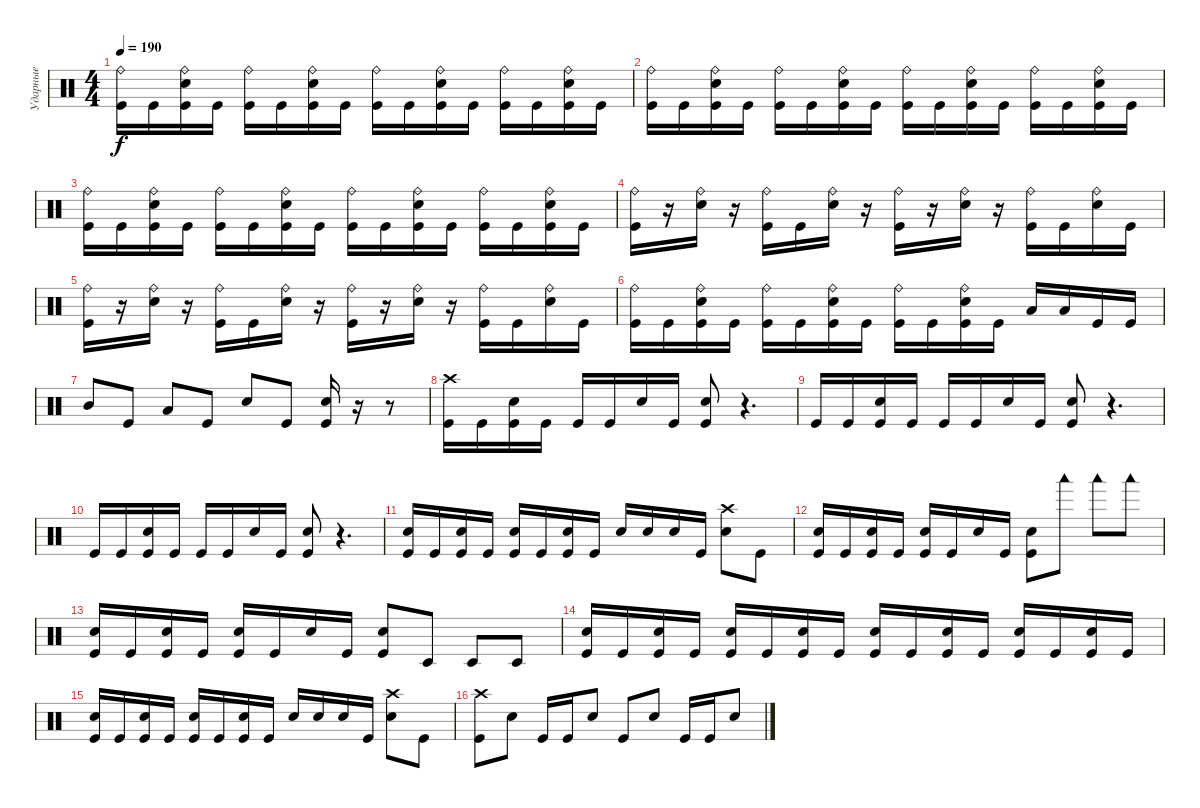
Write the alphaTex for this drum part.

\track ("Ударные" "Ударные") {instrument percussion}
\staff {score}
\articulation defaults
\ts (4 4)
\tempo 190
\clef neutral
\ks c
("Ride (bell)" "Kick (hit)").16{dy f} "Kick (hit)".16 ("Ride (bell)" "Electric Snare (hit)" "Kick (hit)").16 "Kick (hit)".16 ("Ride (bell)" "Kick (hit)").16 "Kick (hit)".16 ("Ride (bell)" "Electric Snare (hit)" "Kick (hit)").16 "Kick (hit)".16 ("Ride (bell)" "Kick (hit)").16 "Kick (hit)".16 ("Ride (bell)" "Electric Snare (hit)" "Kick (hit)").16 "Kick (hit)".16 ("Ride (bell)" "Kick (hit)").16 "Kick (hit)".16 ("Ride (bell)" "Electric Snare (hit)" "Kick (hit)").16 "Kick (hit)".16 |
("Ride (bell)" "Kick (hit)").16 "Kick (hit)".16 ("Ride (bell)" "Electric Snare (hit)" "Kick (hit)").16 "Kick (hit)".16 ("Ride (bell)" "Kick (hit)").16 "Kick (hit)".16 ("Ride (bell)" "Electric Snare (hit)" "Kick (hit)").16 "Kick (hit)".16 ("Ride (bell)" "Kick (hit)").16 "Kick (hit)".16 ("Ride (bell)" "Electric Snare (hit)" "Kick (hit)").16 "Kick (hit)".16 ("Ride (bell)" "Kick (hit)").16 "Kick (hit)".16 ("Ride (bell)" "Electric Snare (hit)" "Kick (hit)").16 "Kick (hit)".16 |
("Ride (bell)" "Kick (hit)").16 "Kick (hit)".16 ("Ride (bell)" "Electric Snare (hit)" "Kick (hit)").16 "Kick (hit)".16 ("Ride (bell)" "Kick (hit)").16 "Kick (hit)".16 ("Ride (bell)" "Electric Snare (hit)" "Kick (hit)").16 "Kick (hit)".16 ("Ride (bell)" "Kick (hit)").16 "Kick (hit)".16 ("Ride (bell)" "Electric Snare (hit)" "Kick (hit)").16 "Kick (hit)".16 ("Ride (bell)" "Kick (hit)").16 "Kick (hit)".16 ("Ride (bell)" "Electric Snare (hit)" "Kick (hit)").16 "Kick (hit)".16 |
("Ride (bell)" "Kick (hit)").16 r.16 ("Ride (bell)" "Electric Snare (hit)").16 r.16 ("Ride (bell)" "Kick (hit)").16 "Kick (hit)".16 ("Ride (bell)" "Electric Snare (hit)").16 r.16 ("Ride (bell)" "Kick (hit)").16 r.16 ("Ride (bell)" "Electric Snare (hit)").16 r.16 ("Ride (bell)" "Kick (hit)").16 "Kick (hit)".16 ("Ride (bell)" "Electric Snare (hit)").16 "Kick (hit)".16 |
("Ride (bell)" "Kick (hit)").16 r.16 ("Ride (bell)" "Electric Snare (hit)").16 r.16 ("Ride (bell)" "Kick (hit)").16 "Kick (hit)".16 ("Ride (bell)" "Electric Snare (hit)").16 r.16 ("Ride (bell)" "Kick (hit)").16 r.16 ("Ride (bell)" "Electric Snare (hit)").16 r.16 ("Ride (bell)" "Kick (hit)").16 "Kick (hit)".16 ("Ride (bell)" "Electric Snare (hit)").16 "Kick (hit)".16 |
("Ride (bell)" "Kick (hit)").16 "Kick (hit)".16 ("Ride (bell)" "Electric Snare (hit)" "Kick (hit)").16 "Kick (hit)".16 ("Ride (bell)" "Kick (hit)").16 "Kick (hit)".16 ("Ride (bell)" "Electric Snare (hit)" "Kick (hit)").16 "Kick (hit)".16 ("Ride (bell)" "Kick (hit)").16 "Kick (hit)".16 ("Ride (bell)" "Electric Snare (hit)" "Kick (hit)").16 "Kick (hit)".16 "Low Tom (hit)".16 "Low Tom (hit)".16 "Kick (hit)".16 "Kick (hit)".16 |
"Mid Tom (hit)".8 "Kick (hit)".8 "Low Tom (hit)".8 "Kick (hit)".8 "Electric Snare (hit)".8 "Kick (hit)".8 ("Electric Snare (hit)" "Kick (hit)").16 r.16 r.8 |
("Crash high (hit)" "Kick (hit)").16 "Kick (hit)".16 ("Electric Snare (hit)" "Kick (hit)").16 "Kick (hit)".16 "Kick (hit)".16 "Kick (hit)".16 "Electric Snare (hit)".16 "Kick (hit)".16 ("Electric Snare (hit)" "Kick (hit)").8 r.4{d} |
"Kick (hit)".16 "Kick (hit)".16 ("Electric Snare (hit)" "Kick (hit)").16 "Kick (hit)".16 "Kick (hit)".16 "Kick (hit)".16 "Electric Snare (hit)".16 "Kick (hit)".16 ("Electric Snare (hit)" "Kick (hit)").8 r.4{d} |
"Kick (hit)".16 "Kick (hit)".16 ("Electric Snare (hit)" "Kick (hit)").16 "Kick (hit)".16 "Kick (hit)".16 "Kick (hit)".16 "Electric Snare (hit)".16 "Kick (hit)".16 ("Electric Snare (hit)" "Kick (hit)").8 r.4{d} |
("Electric Snare (hit)" "Kick (hit)").16 "Kick (hit)".16 ("Electric Snare (hit)" "Kick (hit)").16 "Kick (hit)".16 ("Electric Snare (hit)" "Kick (hit)").16 "Kick (hit)".16 ("Electric Snare (hit)" "Kick (hit)").16 "Kick (hit)".16 "Electric Snare (hit)".16 "Electric Snare (hit)".16 "Electric Snare (hit)".16 "Kick (hit)".16 ("Crash high (hit)" "Electric Snare (hit)").8 "Kick (hit)".8 |
("Electric Snare (hit)" "Kick (hit)").16 "Kick (hit)".16 ("Electric Snare (hit)" "Kick (hit)").16 "Kick (hit)".16 ("Electric Snare (hit)" "Kick (hit)").16 "Kick (hit)".16 "Electric Snare (hit)".16 "Kick (hit)".16 ("Electric Snare (hit)" "Kick (hit)").8 "Woodblock low (hit)".8 "Woodblock low (hit)".8 "Woodblock low (hit)".8 |
("Electric Snare (hit)" "Kick (hit)").16 "Kick (hit)".16 ("Electric Snare (hit)" "Kick (hit)").16 "Kick (hit)".16 ("Electric Snare (hit)" "Kick (hit)").16 "Kick (hit)".16 "Electric Snare (hit)".16 "Kick (hit)".16 ("Electric Snare (hit)" "Kick (hit)").8 "Timbale low (hit)".8 "Timbale low (hit)".8 "Timbale low (hit)".8 |
("Electric Snare (hit)" "Kick (hit)").16 "Kick (hit)".16 ("Electric Snare (hit)" "Kick (hit)").16 "Kick (hit)".16 ("Electric Snare (hit)" "Kick (hit)").16 "Kick (hit)".16 ("Electric Snare (hit)" "Kick (hit)").16 "Kick (hit)".16 ("Electric Snare (hit)" "Kick (hit)").16 "Kick (hit)".16 ("Electric Snare (hit)" "Kick (hit)").16 "Kick (hit)".16 ("Electric Snare (hit)" "Kick (hit)").16 "Kick (hit)".16 ("Electric Snare (hit)" "Kick (hit)").16 "Kick (hit)".16 |
("Electric Snare (hit)" "Kick (hit)").16 "Kick (hit)".16 ("Electric Snare (hit)" "Kick (hit)").16 "Kick (hit)".16 ("Electric Snare (hit)" "Kick (hit)").16 "Kick (hit)".16 ("Electric Snare (hit)" "Kick (hit)").16 "Kick (hit)".16 "Electric Snare (hit)".16 "Electric Snare (hit)".16 "Electric Snare (hit)".16 "Kick (hit)".16 ("Crash high (hit)" "Electric Snare (hit)").8 "Kick (hit)".8 |
("Crash high (hit)" "Kick (hit)").8 "Electric Snare (hit)".8 "Kick (hit)".16 "Kick (hit)".16 "Electric Snare (hit)".8 "Kick (hit)".8 "Electric Snare (hit)".8 "Kick (hit)".16 "Kick (hit)".16 "Electric Snare (hit)".8
